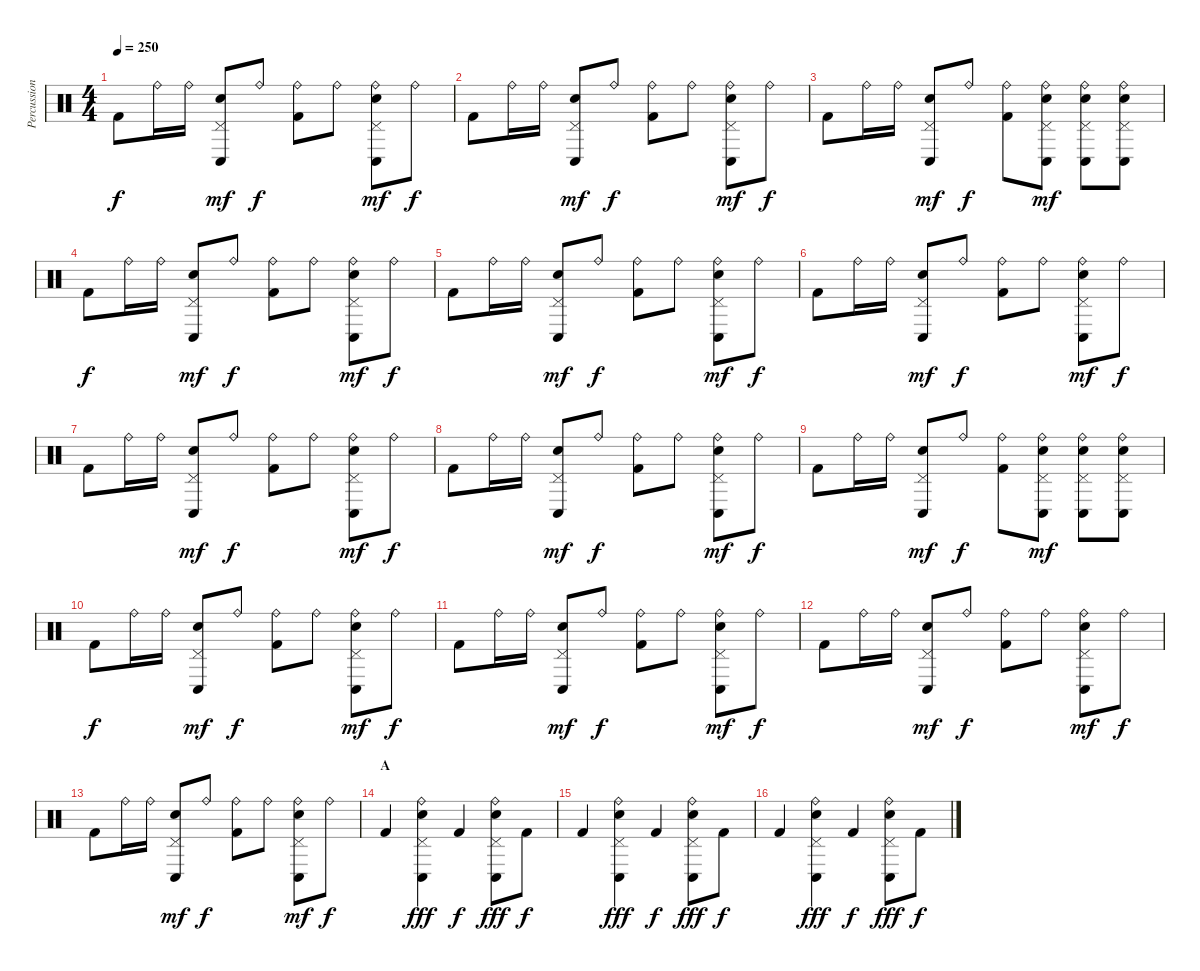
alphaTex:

\track ("Percussion" "Percussion") {instrument percussion}
\staff {score}
\articulation defaults
\ts (4 4)
\tempo 250
\clef neutral
\ks c "Kick (hit) 2".8{dy f} "Ride (bell)".16 "Ride (bell)".16
("Pedal Hi-Hat (hit)" "Conga low (hit)" "Electric Snare (hit)").8{dy mf} "Ride (bell)".8{dy f} ("Ride (bell)" "Kick (hit) 2").8 "Ride (bell)".8 ("Ride (bell)" "Pedal Hi-Hat (hit)" "Conga low (hit)" "Electric Snare (hit)").8{dy mf} "Ride (bell)".8{dy f} |
"Kick (hit) 2".8 "Ride (bell)".16 "Ride (bell)".16 ("Pedal Hi-Hat (hit)" "Conga low (hit)" "Electric Snare (hit)").8{dy mf} "Ride (bell)".8{dy f} ("Ride (bell)" "Kick (hit) 2").8 "Ride (bell)".8 ("Ride (bell)" "Pedal Hi-Hat (hit)" "Conga low (hit)" "Electric Snare (hit)").8{dy mf} "Ride (bell)".8{dy f} |
"Kick (hit) 2".8 "Ride (bell)".16 "Ride (bell)".16 ("Pedal Hi-Hat (hit)" "Conga low (hit)" "Electric Snare (hit)").8{dy mf} "Ride (bell)".8{dy f} ("Ride (bell)" "Kick (hit) 2").8 ("Ride (bell)" "Pedal Hi-Hat (hit)" "Conga low (hit)" "Electric Snare (hit)").8{dy mf} ("Ride (bell)" "Pedal Hi-Hat (hit)" "Conga low (hit)" "Electric Snare (hit)").8 ("Ride (bell)" "Pedal Hi-Hat (hit)" "Conga low (hit)" "Electric Snare (hit)").8 |
"Kick (hit) 2".8{dy f} "Ride (bell)".16 "Ride (bell)".16 ("Pedal Hi-Hat (hit)" "Conga low (hit)" "Electric Snare (hit)").8{dy mf} "Ride (bell)".8{dy f} ("Ride (bell)" "Kick (hit) 2").8 "Ride (bell)".8 ("Ride (bell)" "Pedal Hi-Hat (hit)" "Conga low (hit)" "Electric Snare (hit)").8{dy mf} "Ride (bell)".8{dy f} |
"Kick (hit) 2".8 "Ride (bell)".16 "Ride (bell)".16 ("Pedal Hi-Hat (hit)" "Conga low (hit)" "Electric Snare (hit)").8{dy mf} "Ride (bell)".8{dy f} ("Ride (bell)" "Kick (hit) 2").8 "Ride (bell)".8 ("Ride (bell)" "Pedal Hi-Hat (hit)" "Conga low (hit)" "Electric Snare (hit)").8{dy mf} "Ride (bell)".8{dy f} |
"Kick (hit) 2".8 "Ride (bell)".16 "Ride (bell)".16 ("Pedal Hi-Hat (hit)" "Conga low (hit)" "Electric Snare (hit)").8{dy mf} "Ride (bell)".8{dy f} ("Ride (bell)" "Kick (hit) 2").8 "Ride (bell)".8 ("Ride (bell)" "Pedal Hi-Hat (hit)" "Conga low (hit)" "Electric Snare (hit)").8{dy mf} "Ride (bell)".8{dy f} |
"Kick (hit) 2".8 "Ride (bell)".16 "Ride (bell)".16 ("Pedal Hi-Hat (hit)" "Conga low (hit)" "Electric Snare (hit)").8{dy mf} "Ride (bell)".8{dy f} ("Ride (bell)" "Kick (hit) 2").8 "Ride (bell)".8 ("Ride (bell)" "Pedal Hi-Hat (hit)" "Conga low (hit)" "Electric Snare (hit)").8{dy mf} "Ride (bell)".8{dy f} |
"Kick (hit) 2".8 "Ride (bell)".16 "Ride (bell)".16 ("Pedal Hi-Hat (hit)" "Conga low (hit)" "Electric Snare (hit)").8{dy mf} "Ride (bell)".8{dy f} ("Ride (bell)" "Kick (hit) 2").8 "Ride (bell)".8 ("Ride (bell)" "Pedal Hi-Hat (hit)" "Conga low (hit)" "Electric Snare (hit)").8{dy mf} "Ride (bell)".8{dy f} |
"Kick (hit) 2".8 "Ride (bell)".16 "Ride (bell)".16 ("Pedal Hi-Hat (hit)" "Conga low (hit)" "Electric Snare (hit)").8{dy mf} "Ride (bell)".8{dy f} ("Ride (bell)" "Kick (hit) 2").8 ("Ride (bell)" "Pedal Hi-Hat (hit)" "Conga low (hit)" "Electric Snare (hit)").8{dy mf} ("Ride (bell)" "Pedal Hi-Hat (hit)" "Conga low (hit)" "Electric Snare (hit)").8 ("Ride (bell)" "Pedal Hi-Hat (hit)" "Conga low (hit)" "Electric Snare (hit)").8 |
"Kick (hit) 2".8{dy f} "Ride (bell)".16 "Ride (bell)".16 ("Pedal Hi-Hat (hit)" "Conga low (hit)" "Electric Snare (hit)").8{dy mf} "Ride (bell)".8{dy f} ("Ride (bell)" "Kick (hit) 2").8 "Ride (bell)".8 ("Ride (bell)" "Pedal Hi-Hat (hit)" "Conga low (hit)" "Electric Snare (hit)").8{dy mf} "Ride (bell)".8{dy f} |
"Kick (hit) 2".8 "Ride (bell)".16 "Ride (bell)".16 ("Pedal Hi-Hat (hit)" "Conga low (hit)" "Electric Snare (hit)").8{dy mf} "Ride (bell)".8{dy f} ("Ride (bell)" "Kick (hit) 2").8 "Ride (bell)".8 ("Ride (bell)" "Pedal Hi-Hat (hit)" "Conga low (hit)" "Electric Snare (hit)").8{dy mf} "Ride (bell)".8{dy f} |
"Kick (hit) 2".8 "Ride (bell)".16 "Ride (bell)".16 ("Pedal Hi-Hat (hit)" "Conga low (hit)" "Electric Snare (hit)").8{dy mf} "Ride (bell)".8{dy f} ("Ride (bell)" "Kick (hit) 2").8 "Ride (bell)".8 ("Ride (bell)" "Pedal Hi-Hat (hit)" "Conga low (hit)" "Electric Snare (hit)").8{dy mf} "Ride (bell)".8{dy f} |
"Kick (hit) 2".8 "Ride (bell)".16 "Ride (bell)".16 ("Pedal Hi-Hat (hit)" "Conga low (hit)" "Electric Snare (hit)").8{dy mf} "Ride (bell)".8{dy f} ("Ride (bell)" "Kick (hit) 2").8 "Ride (bell)".8 ("Ride (bell)" "Pedal Hi-Hat (hit)" "Conga low (hit)" "Electric Snare (hit)").8{dy mf} "Ride (bell)".8{dy f} |
\section ("" "A")
"Kick (hit) 2".4 ("Ride (bell)" "Pedal Hi-Hat (hit)" "Conga low (hit)" "Electric Snare (hit)").4{dy fff} "Kick (hit) 2".4{dy f} ("Ride (bell)" "Pedal Hi-Hat (hit)" "Conga low (hit)" "Electric Snare (hit)").8{dy fff} "Kick (hit) 2".8{dy f} |
"Kick (hit) 2".4 ("Ride (bell)" "Pedal Hi-Hat (hit)" "Conga low (hit)" "Electric Snare (hit)").4{dy fff} "Kick (hit) 2".4{dy f} ("Ride (bell)" "Pedal Hi-Hat (hit)" "Conga low (hit)" "Electric Snare (hit)").8{dy fff} "Kick (hit) 2".8{dy f} |
"Kick (hit) 2".4 ("Ride (bell)" "Pedal Hi-Hat (hit)" "Conga low (hit)" "Electric Snare (hit)").4{dy fff} "Kick (hit) 2".4{dy f} ("Ride (bell)" "Pedal Hi-Hat (hit)" "Conga low (hit)" "Electric Snare (hit)").8{dy fff} "Kick (hit) 2".8{dy f}
